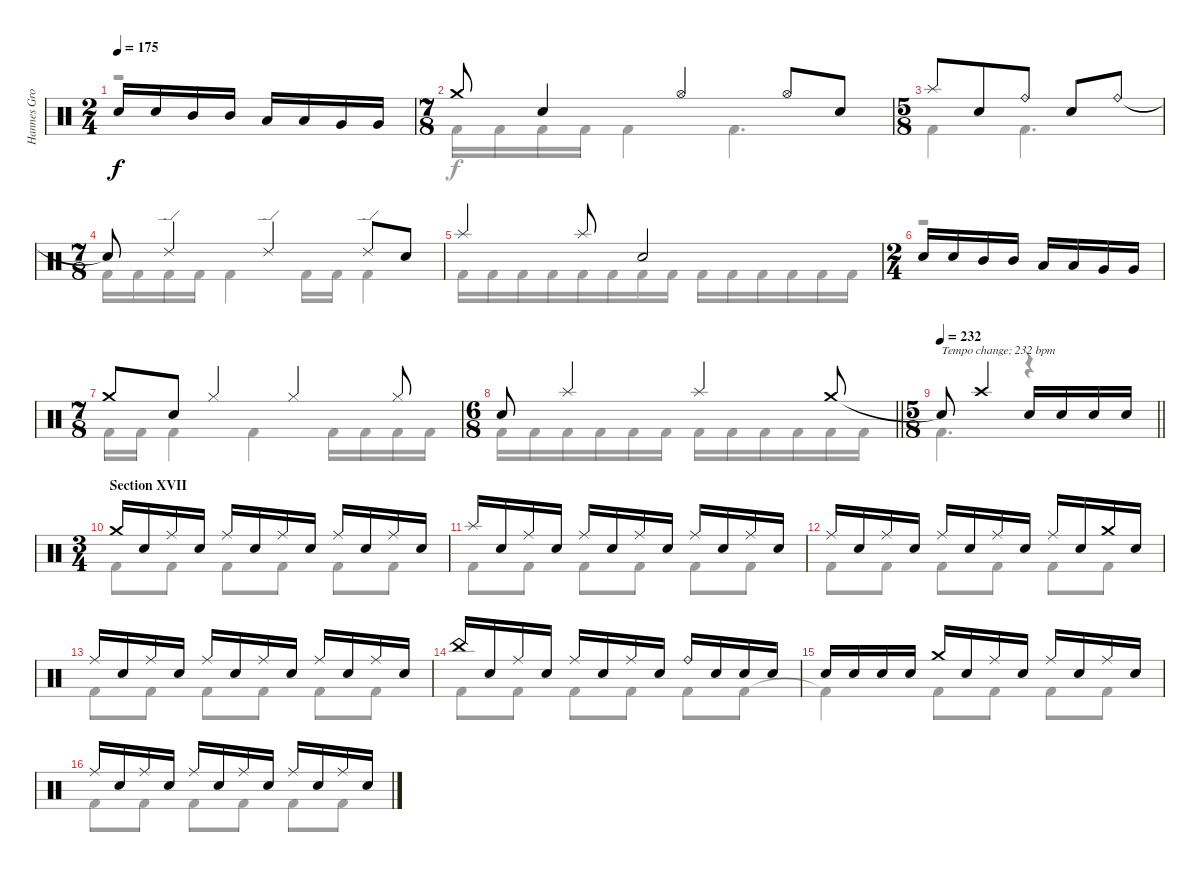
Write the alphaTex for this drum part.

\track ("Hannes Grossman" "Hannes Gro") {instrument percussion}
\staff {score}
\articulation defaults
\voice
\ts (2 4)
\tempo 175
\clef neutral
\ks c "Electric Snare (hit)".16{dy f} "Electric Snare (hit)".16 "Mid Tom (hit)".16 "Mid Tom (hit)".16 "Low Tom (hit)".16 "Low Tom (hit)".16 "Very Low Tom (hit)".16 "Very Low Tom (hit)".16
|
\ts (7 8)
"Crash medium (hit)".8 "Electric Snare (hit)".4 "Hi-Hat (open)".4 "Hi-Hat (open)".8 "Electric Snare (hit)".8 |
\ts (5 8)
"Splash (hit)".8 "Electric Snare (hit)".8 "Ride (bell)".8 "Electric Snare (hit)".8 "Ride (bell)".8 |
\ts (7 8)
"Snare (hit)"{t}.8 "Ride (edge) 2".4 "Ride (edge) 2".4 "Ride (edge) 2".8 "Electric Snare (hit)".8 |
"Splash (hit)".4 "Splash (hit)".8 "Electric Snare (hit)".2 |
\ts (2 4)
"Electric Snare (hit)".16 "Electric Snare (hit)".16 "Mid Tom (hit)".16 "Mid Tom (hit)".16 "Low Tom (hit)".16 "Low Tom (hit)".16 "Very Low Tom (hit)".16 "Very Low Tom (hit)".16 |
\ts (7 8)
"Crash medium (hit)".8 "Electric Snare (hit)".8 "Hi-Hat (closed)".4 "Hi-Hat (closed)".4 "Hi-Hat (closed)".8 |
\ts (6 8)
\barLineRight lightlight "Electric Snare (hit)".8 "Splash (hit)".4 "Splash (hit)".4 "Crash medium (hit)".8
|
\ts (5 8)
\tempo 232
\barLineRight lightlight "Snare (hit)"{t}.8{txt "Tempo change; 232 bpm"} "Crash high (hit)".4 "Electric Snare (hit)".16 "Electric Snare (hit)".16 "Electric Snare (hit)".16 "Electric Snare (hit)".16
|
\ts (3 4)
\section ("" "Section XVII")
"Crash medium (hit)".16 "Electric Snare (hit)".16 "Ride (middle)".16 "Electric Snare (hit)".16 "Ride (middle)".16 "Electric Snare (hit)".16 "Ride (middle)".16 "Electric Snare (hit)".16 "Ride (middle)".16 "Electric Snare (hit)".16 "Ride (middle)".16 "Electric Snare (hit)".16 |
"Splash (hit)".16 "Electric Snare (hit)".16 "Ride (middle)".16 "Electric Snare (hit)".16 "Ride (middle)".16 "Electric Snare (hit)".16 "Ride (middle)".16 "Electric Snare (hit)".16 "Ride (middle)".16 "Electric Snare (hit)".16 "Ride (middle)".16 "Electric Snare (hit)".16 |
"Ride (middle)".16 "Electric Snare (hit)".16 "Ride (middle)".16 "Electric Snare (hit)".16 "Ride (middle)".16 "Electric Snare (hit)".16 "Ride (middle)".16 "Electric Snare (hit)".16 "Ride (middle)".16 "Electric Snare (hit)".16 "Crash medium (hit)".16 "Electric Snare (hit)".16 |
"Ride (middle)".16 "Electric Snare (hit)".16 "Ride (middle)".16 "Electric Snare (hit)".16 "Ride (middle)".16 "Electric Snare (hit)".16 "Ride (middle)".16 "Electric Snare (hit)".16 "Ride (middle)".16 "Electric Snare (hit)".16 "Ride (middle)".16 "Electric Snare (hit)".16 |
"China (hit)".16 "Electric Snare (hit)".16 "Ride (middle)".16 "Electric Snare (hit)".16 "Ride (middle)".16 "Electric Snare (hit)".16 "Ride (middle)".16 "Electric Snare (hit)".16 "Ride (bell)".16 "Electric Snare (hit)".16 "Electric Snare (hit)".16 "Electric Snare (hit)".16 |
"Electric Snare (hit)".16 "Electric Snare (hit)".16 "Electric Snare (hit)".16 "Electric Snare (hit)".16 "Crash medium (hit)".16 "Electric Snare (hit)".16 "Ride (middle)".16 "Electric Snare (hit)".16 "Ride (middle)".16 "Electric Snare (hit)".16 "Ride (middle)".16 "Electric Snare (hit)".16 |
"Ride (middle)".16 "Electric Snare (hit)".16 "Ride (middle)".16 "Electric Snare (hit)".16 "Ride (middle)".16 "Electric Snare (hit)".16 "Ride (middle)".16 "Electric Snare (hit)".16 "Ride (middle)".16 "Electric Snare (hit)".16 "Ride (middle)".16 "Electric Snare (hit)".16
\voice
\clef neutral
\ottava regular
\simile none
\ks c
r.2{dy f} |
"Kick (hit) 2".16 "Kick (hit) 2".16 "Kick (hit) 2".16 "Kick (hit) 2".16 "Kick (hit) 2".4 "Kick (hit) 2".4{d} |
"Kick (hit) 2".4 "Kick (hit) 2".4{d} |
"Kick (hit) 2".16 "Kick (hit) 2".16 "Kick (hit) 2".16 "Kick (hit) 2".16 "Kick (hit) 2".4 "Kick (hit) 2".16 "Kick (hit) 2".16 "Kick (hit) 2".4 |
"Kick (hit) 2".16 "Kick (hit) 2".16 "Kick (hit) 2".16 "Kick (hit) 2".16 "Kick (hit) 2".16 "Kick (hit) 2".16 "Kick (hit) 2".16 "Kick (hit) 2".16 "Kick (hit) 2".16 "Kick (hit) 2".16 "Kick (hit) 2".16 "Kick (hit) 2".16 "Kick (hit) 2".16 "Kick (hit) 2".16 |
r.2 |
"Kick (hit) 2".16 "Kick (hit) 2".16 "Kick (hit) 2".4 "Kick (hit) 2".4 "Kick (hit) 2".16 "Kick (hit) 2".16 "Kick (hit) 2".16 "Kick (hit) 2".16 |
\barLineRight lightlight "Kick (hit) 2".16 "Kick (hit) 2".16 "Kick (hit) 2".16 "Kick (hit) 2".16 "Kick (hit) 2".16 "Kick (hit) 2".16 "Kick (hit) 2".16 "Kick (hit) 2".16 "Kick (hit) 2".16 "Kick (hit) 2".16 "Kick (hit) 2".16 "Kick (hit) 2".16
|
\barLineRight lightlight "Kick (hit) 2".4{d}
r.4 |
"Kick (hit) 2".8 "Kick (hit) 2".8 "Kick (hit) 2".8 "Kick (hit) 2".8 "Kick (hit) 2".8 "Kick (hit) 2".8 |
"Kick (hit) 2".8 "Kick (hit) 2".8 "Kick (hit) 2".8 "Kick (hit) 2".8 "Kick (hit) 2".8 "Kick (hit) 2".8 |
"Kick (hit) 2".8 "Kick (hit) 2".8 "Kick (hit) 2".8 "Kick (hit) 2".8 "Kick (hit) 2".8 "Kick (hit) 2".8 |
"Kick (hit) 2".8 "Kick (hit) 2".8 "Kick (hit) 2".8 "Kick (hit) 2".8 "Kick (hit) 2".8 "Kick (hit) 2".8 |
"Kick (hit) 2".8 "Kick (hit) 2".8 "Kick (hit) 2".8 "Kick (hit) 2".8 "Kick (hit) 2".8 "Kick (hit) 2".8 |
"Kick (hit) 2"{t}.4 "Kick (hit) 2".8 "Kick (hit) 2".8 "Kick (hit) 2".8 "Kick (hit) 2".8 |
"Kick (hit) 2".8 "Kick (hit) 2".8 "Kick (hit) 2".8 "Kick (hit) 2".8 "Kick (hit) 2".8 "Kick (hit) 2".8
